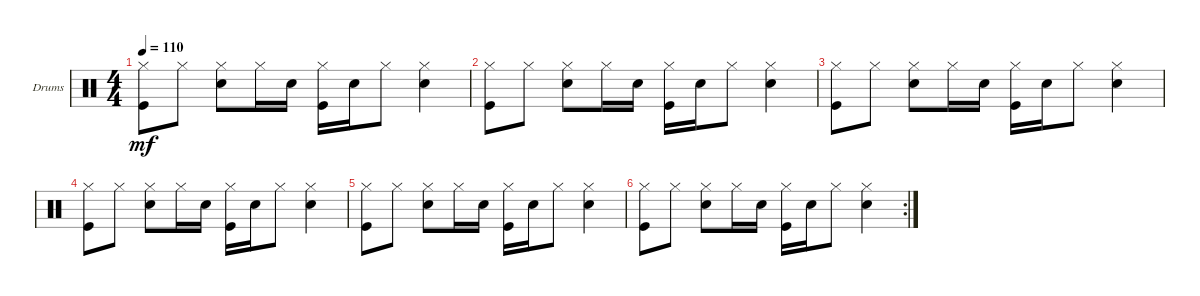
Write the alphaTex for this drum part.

\bracketExtendMode groupsimilarinstruments
\firstSystemTrackNameOrientation horizontal
\otherSystemsTrackNameOrientation horizontal
\track ("Drumkit" "Drums") {instrument percussion}
\staff {score}
\articulation defaults
\ts (4 4)
\tempo 110
\clef neutral
\ks c
("Hi-Hat (closed)" "Kick (hit)").8{dy mf} "Hi-Hat (closed)".8 ("Hi-Hat (closed)" "Snare (hit) 2").8 "Hi-Hat (closed)".16 "Snare (hit) 2".16 ("Hi-Hat (closed)" "Kick (hit)").16 "Snare (hit) 2".16 "Hi-Hat (closed)".8 ("Hi-Hat (closed)" "Snare (hit) 2").4 |
("Hi-Hat (closed)" "Kick (hit)").8 "Hi-Hat (closed)".8 ("Hi-Hat (closed)" "Snare (hit) 2").8 "Hi-Hat (closed)".16 "Snare (hit) 2".16 ("Hi-Hat (closed)" "Kick (hit)").16 "Snare (hit) 2".16 "Hi-Hat (closed)".8 ("Hi-Hat (closed)" "Snare (hit) 2").4 |
("Hi-Hat (closed)" "Kick (hit)").8 "Hi-Hat (closed)".8 ("Hi-Hat (closed)" "Snare (hit) 2").8 "Hi-Hat (closed)".16 "Snare (hit) 2".16 ("Hi-Hat (closed)" "Kick (hit)").16 "Snare (hit) 2".16 "Hi-Hat (closed)".8 ("Hi-Hat (closed)" "Snare (hit) 2").4 |
("Hi-Hat (closed)" "Kick (hit)").8 "Hi-Hat (closed)".8 ("Hi-Hat (closed)" "Snare (hit) 2").8 "Hi-Hat (closed)".16 "Snare (hit) 2".16 ("Hi-Hat (closed)" "Kick (hit)").16 "Snare (hit) 2".16 "Hi-Hat (closed)".8 ("Hi-Hat (closed)" "Snare (hit) 2").4 |
("Hi-Hat (closed)" "Kick (hit)").8 "Hi-Hat (closed)".8 ("Hi-Hat (closed)" "Snare (hit) 2").8 "Hi-Hat (closed)".16 "Snare (hit) 2".16 ("Hi-Hat (closed)" "Kick (hit)").16 "Snare (hit) 2".16 "Hi-Hat (closed)".8 ("Hi-Hat (closed)" "Snare (hit) 2").4 |
\rc 2
("Hi-Hat (closed)" "Kick (hit)").8 "Hi-Hat (closed)".8 ("Hi-Hat (closed)" "Snare (hit) 2").8 "Hi-Hat (closed)".16 "Snare (hit) 2".16 ("Hi-Hat (closed)" "Kick (hit)").16 "Snare (hit) 2".16 "Hi-Hat (closed)".8 ("Hi-Hat (closed)" "Snare (hit) 2").4
